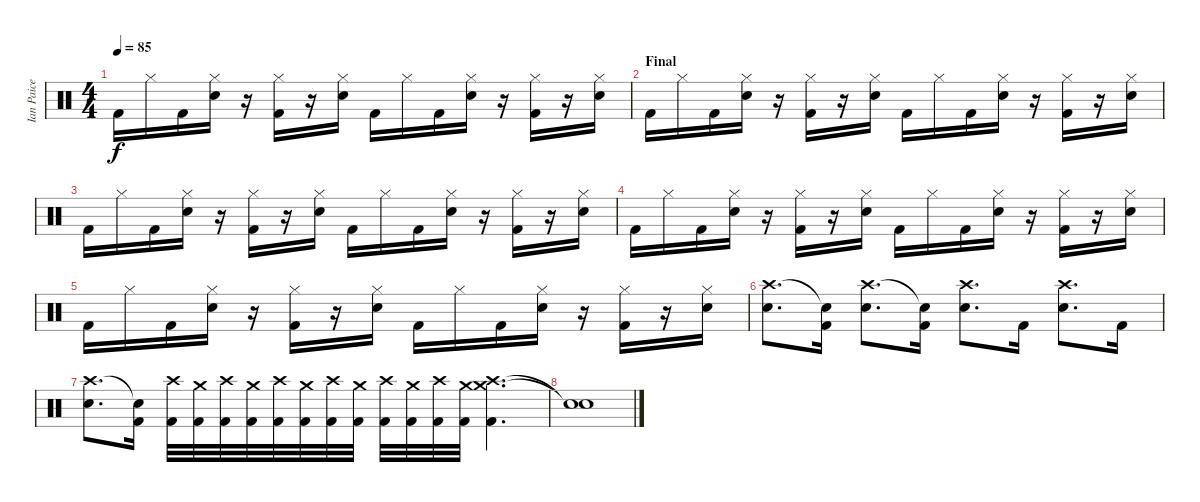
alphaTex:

\track ("Ian Paice" "Ian Paice") {instrument percussion}
\staff {score}
\articulation defaults
\ts (4 4)
\tempo 85
\clef neutral
\ks c "Kick (hit) 2".16{dy f} "Hi-Hat (closed)".16 "Kick (hit) 2".16
("Hi-Hat (closed)" "Snare (hit) 2").16 r.16 ("Hi-Hat (closed)" "Kick (hit) 2").16 r.16 ("Hi-Hat (closed)" "Snare (hit) 2").16 "Kick (hit) 2".16 "Hi-Hat (closed)".16 "Kick (hit) 2".16 ("Hi-Hat (closed)" "Snare (hit) 2").16 r.16 ("Hi-Hat (closed)" "Kick (hit) 2").16 r.16 ("Hi-Hat (closed)" "Snare (hit) 2").16 |
\section ("" "Final")
"Kick (hit) 2".16 "Hi-Hat (closed)".16 "Kick (hit) 2".16 ("Hi-Hat (closed)" "Snare (hit) 2").16 r.16 ("Hi-Hat (closed)" "Kick (hit) 2").16 r.16 ("Hi-Hat (closed)" "Snare (hit) 2").16 "Kick (hit) 2".16 "Hi-Hat (closed)".16 "Kick (hit) 2".16 ("Hi-Hat (closed)" "Snare (hit) 2").16 r.16 ("Hi-Hat (closed)" "Kick (hit) 2").16 r.16 ("Hi-Hat (closed)" "Snare (hit) 2").16 |
"Kick (hit) 2".16 "Hi-Hat (closed)".16 "Kick (hit) 2".16 ("Hi-Hat (closed)" "Snare (hit) 2").16 r.16 ("Hi-Hat (closed)" "Kick (hit) 2").16 r.16 ("Hi-Hat (closed)" "Snare (hit) 2").16 "Kick (hit) 2".16 "Hi-Hat (closed)".16 "Kick (hit) 2".16 ("Hi-Hat (closed)" "Snare (hit) 2").16 r.16 ("Hi-Hat (closed)" "Kick (hit) 2").16 r.16 ("Hi-Hat (closed)" "Snare (hit) 2").16 |
"Kick (hit) 2".16 "Hi-Hat (closed)".16 "Kick (hit) 2".16 ("Hi-Hat (closed)" "Snare (hit) 2").16 r.16 ("Hi-Hat (closed)" "Kick (hit) 2").16 r.16 ("Hi-Hat (closed)" "Snare (hit) 2").16 "Kick (hit) 2".16 "Hi-Hat (closed)".16 "Kick (hit) 2".16 ("Hi-Hat (closed)" "Snare (hit) 2").16 r.16 ("Hi-Hat (closed)" "Kick (hit) 2").16 r.16 ("Hi-Hat (closed)" "Snare (hit) 2").16 |
"Kick (hit) 2".16 "Hi-Hat (closed)".16 "Kick (hit) 2".16 ("Hi-Hat (closed)" "Snare (hit) 2").16 r.16 ("Hi-Hat (closed)" "Kick (hit) 2").16 r.16 ("Hi-Hat (closed)" "Snare (hit) 2").16 "Kick (hit) 2".16 "Hi-Hat (closed)".16 "Kick (hit) 2".16 ("Hi-Hat (closed)" "Snare (hit) 2").16 r.16 ("Hi-Hat (closed)" "Kick (hit) 2").16 r.16 ("Hi-Hat (closed)" "Snare (hit) 2").16 |
("Crash high (hit)" "Snare (hit) 2").8{d} ("Snare (hit)"{t} "Kick (hit) 2").16 ("Crash high (hit)" "Snare (hit) 2").8{d} ("Snare (hit)"{t} "Kick (hit) 2").16 ("Crash high (hit)" "Snare (hit) 2").8{d} "Kick (hit) 2".16 ("Crash high (hit)" "Snare (hit) 2").8{d} "Kick (hit) 2".16 |
("Crash high (hit)" "Snare (hit) 2").8{d} ("Snare (hit)"{t} "Kick (hit) 2").16 ("Crash high (hit)" "Kick (hit) 2").32 ("Crash medium (hit)" "Kick (hit) 2").32 ("Crash high (hit)" "Kick (hit) 2").32 ("Crash medium (hit)" "Kick (hit) 2").32 ("Crash high (hit)" "Kick (hit) 2").32 ("Crash medium (hit)" "Kick (hit) 2").32 ("Crash high (hit)" "Kick (hit) 2").32 ("Crash medium (hit)" "Kick (hit) 2").32 ("Crash high (hit)" "Kick (hit) 2").32 ("Crash medium (hit)" "Kick (hit) 2").32 ("Crash high (hit)" "Kick (hit) 2").32 ("Crash medium (hit)" "Kick (hit) 2").32 ("Crash high (hit)" "Crash medium (hit)" "Kick (hit) 2").4{d} |
("Snare (hit)"{t} "Snare (hit)"{t}).1
